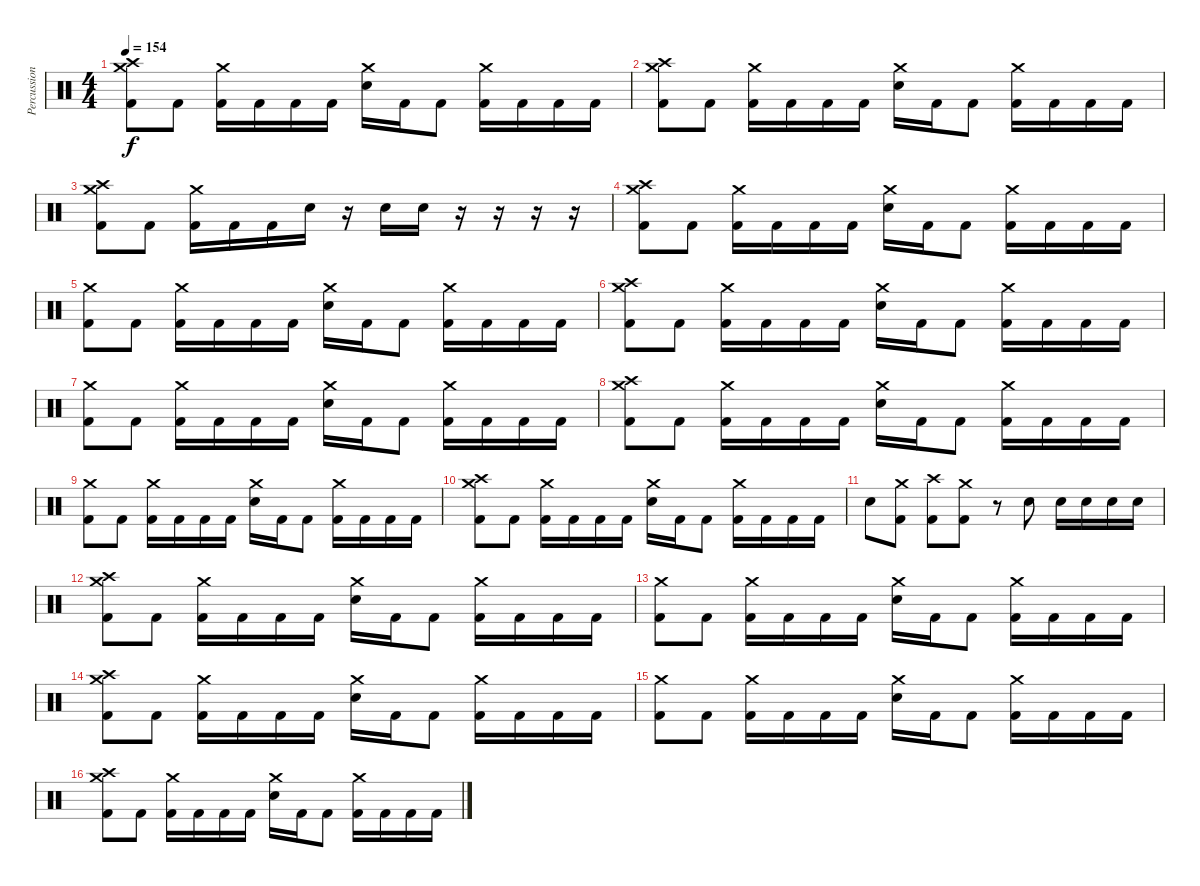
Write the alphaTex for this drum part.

\track ("Percussion" "Percussion") {instrument percussion bank 128}
\staff {score}
\articulation defaults
\ts (4 4)
\tempo 154
\clef neutral
\ks c
("Crash high (hit)" "Crash medium (hit)" "Kick (hit) 2").8{dy f} "Kick (hit) 2".8 ("Crash medium (hit)" "Kick (hit) 2").16 "Kick (hit) 2".16 "Kick (hit) 2".16 "Kick (hit) 2".16 ("Crash medium (hit)" "Snare (hit) 2").16 "Kick (hit) 2".16 "Kick (hit) 2".8 ("Crash medium (hit)" "Kick (hit) 2").16 "Kick (hit) 2".16 "Kick (hit) 2".16 "Kick (hit) 2".16 |
("Crash high (hit)" "Crash medium (hit)" "Kick (hit) 2").8 "Kick (hit) 2".8 ("Crash medium (hit)" "Kick (hit) 2").16 "Kick (hit) 2".16 "Kick (hit) 2".16 "Kick (hit) 2".16 ("Crash medium (hit)" "Snare (hit) 2").16 "Kick (hit) 2".16 "Kick (hit) 2".8 ("Crash medium (hit)" "Kick (hit) 2").16 "Kick (hit) 2".16 "Kick (hit) 2".16 "Kick (hit) 2".16 |
("Crash high (hit)" "Crash medium (hit)" "Kick (hit) 2").8 "Kick (hit) 2".8 ("Crash medium (hit)" "Kick (hit) 2").16 "Kick (hit) 2".16 "Kick (hit) 2".16 "Snare (hit) 2".16 r.16 "Snare (hit) 2".16 "Snare (hit) 2".16 r.16 r.16 r.16 r.16 |
("Crash high (hit)" "Crash medium (hit)" "Kick (hit) 2").8 "Kick (hit) 2".8 ("Crash medium (hit)" "Kick (hit) 2").16 "Kick (hit) 2".16 "Kick (hit) 2".16 "Kick (hit) 2".16 ("Crash medium (hit)" "Snare (hit) 2").16 "Kick (hit) 2".16 "Kick (hit) 2".8 ("Crash medium (hit)" "Kick (hit) 2").16 "Kick (hit) 2".16 "Kick (hit) 2".16 "Kick (hit) 2".16 |
("Crash medium (hit)" "Kick (hit) 2").8 "Kick (hit) 2".8 ("Crash medium (hit)" "Kick (hit) 2").16 "Kick (hit) 2".16 "Kick (hit) 2".16 "Kick (hit) 2".16 ("Crash medium (hit)" "Snare (hit) 2").16 "Kick (hit) 2".16 "Kick (hit) 2".8 ("Crash medium (hit)" "Kick (hit) 2").16 "Kick (hit) 2".16 "Kick (hit) 2".16 "Kick (hit) 2".16 |
("Crash high (hit)" "Crash medium (hit)" "Kick (hit) 2").8 "Kick (hit) 2".8 ("Crash medium (hit)" "Kick (hit) 2").16 "Kick (hit) 2".16 "Kick (hit) 2".16 "Kick (hit) 2".16 ("Crash medium (hit)" "Snare (hit) 2").16 "Kick (hit) 2".16 "Kick (hit) 2".8 ("Crash medium (hit)" "Kick (hit) 2").16 "Kick (hit) 2".16 "Kick (hit) 2".16 "Kick (hit) 2".16 |
("Crash medium (hit)" "Kick (hit) 2").8 "Kick (hit) 2".8 ("Crash medium (hit)" "Kick (hit) 2").16 "Kick (hit) 2".16 "Kick (hit) 2".16 "Kick (hit) 2".16 ("Crash medium (hit)" "Snare (hit) 2").16 "Kick (hit) 2".16 "Kick (hit) 2".8 ("Crash medium (hit)" "Kick (hit) 2").16 "Kick (hit) 2".16 "Kick (hit) 2".16 "Kick (hit) 2".16 |
("Crash high (hit)" "Crash medium (hit)" "Kick (hit) 2").8 "Kick (hit) 2".8 ("Crash medium (hit)" "Kick (hit) 2").16 "Kick (hit) 2".16 "Kick (hit) 2".16 "Kick (hit) 2".16 ("Crash medium (hit)" "Snare (hit) 2").16 "Kick (hit) 2".16 "Kick (hit) 2".8 ("Crash medium (hit)" "Kick (hit) 2").16 "Kick (hit) 2".16 "Kick (hit) 2".16 "Kick (hit) 2".16 |
("Crash medium (hit)" "Kick (hit) 2").8 "Kick (hit) 2".8 ("Crash medium (hit)" "Kick (hit) 2").16 "Kick (hit) 2".16 "Kick (hit) 2".16 "Kick (hit) 2".16 ("Crash medium (hit)" "Snare (hit) 2").16 "Kick (hit) 2".16 "Kick (hit) 2".8 ("Crash medium (hit)" "Kick (hit) 2").16 "Kick (hit) 2".16 "Kick (hit) 2".16 "Kick (hit) 2".16 |
("Crash high (hit)" "Crash medium (hit)" "Kick (hit) 2").8 "Kick (hit) 2".8 ("Crash medium (hit)" "Kick (hit) 2").16 "Kick (hit) 2".16 "Kick (hit) 2".16 "Kick (hit) 2".16 ("Crash medium (hit)" "Snare (hit) 2").16 "Kick (hit) 2".16 "Kick (hit) 2".8 ("Crash medium (hit)" "Kick (hit) 2").16 "Kick (hit) 2".16 "Kick (hit) 2".16 "Kick (hit) 2".16 |
"Snare (hit) 2".8 ("Crash medium (hit)" "Kick (hit) 2").8 ("Crash high (hit)" "Kick (hit) 2").8 ("Crash medium (hit)" "Kick (hit) 2").8 r.8 "Snare (hit) 2".8 "Snare (hit) 2".16 "Snare (hit) 2".16 "Snare (hit) 2".16 "Snare (hit) 2".16 |
("Crash high (hit)" "Crash medium (hit)" "Kick (hit) 2").8 "Kick (hit) 2".8 ("Crash medium (hit)" "Kick (hit) 2").16 "Kick (hit) 2".16 "Kick (hit) 2".16 "Kick (hit) 2".16 ("Crash medium (hit)" "Snare (hit) 2").16 "Kick (hit) 2".16 "Kick (hit) 2".8 ("Crash medium (hit)" "Kick (hit) 2").16 "Kick (hit) 2".16 "Kick (hit) 2".16 "Kick (hit) 2".16 |
("Crash medium (hit)" "Kick (hit) 2").8 "Kick (hit) 2".8 ("Crash medium (hit)" "Kick (hit) 2").16 "Kick (hit) 2".16 "Kick (hit) 2".16 "Kick (hit) 2".16 ("Crash medium (hit)" "Snare (hit) 2").16 "Kick (hit) 2".16 "Kick (hit) 2".8 ("Crash medium (hit)" "Kick (hit) 2").16 "Kick (hit) 2".16 "Kick (hit) 2".16 "Kick (hit) 2".16 |
("Crash high (hit)" "Crash medium (hit)" "Kick (hit) 2").8 "Kick (hit) 2".8 ("Crash medium (hit)" "Kick (hit) 2").16 "Kick (hit) 2".16 "Kick (hit) 2".16 "Kick (hit) 2".16 ("Crash medium (hit)" "Snare (hit) 2").16 "Kick (hit) 2".16 "Kick (hit) 2".8 ("Crash medium (hit)" "Kick (hit) 2").16 "Kick (hit) 2".16 "Kick (hit) 2".16 "Kick (hit) 2".16 |
("Crash medium (hit)" "Kick (hit) 2").8 "Kick (hit) 2".8 ("Crash medium (hit)" "Kick (hit) 2").16 "Kick (hit) 2".16 "Kick (hit) 2".16 "Kick (hit) 2".16 ("Crash medium (hit)" "Snare (hit) 2").16 "Kick (hit) 2".16 "Kick (hit) 2".8 ("Crash medium (hit)" "Kick (hit) 2").16 "Kick (hit) 2".16 "Kick (hit) 2".16 "Kick (hit) 2".16 |
("Crash high (hit)" "Crash medium (hit)" "Kick (hit) 2").8 "Kick (hit) 2".8 ("Crash medium (hit)" "Kick (hit) 2").16 "Kick (hit) 2".16 "Kick (hit) 2".16 "Kick (hit) 2".16 ("Crash medium (hit)" "Snare (hit) 2").16 "Kick (hit) 2".16 "Kick (hit) 2".8 ("Crash medium (hit)" "Kick (hit) 2").16 "Kick (hit) 2".16 "Kick (hit) 2".16 "Kick (hit) 2".16
